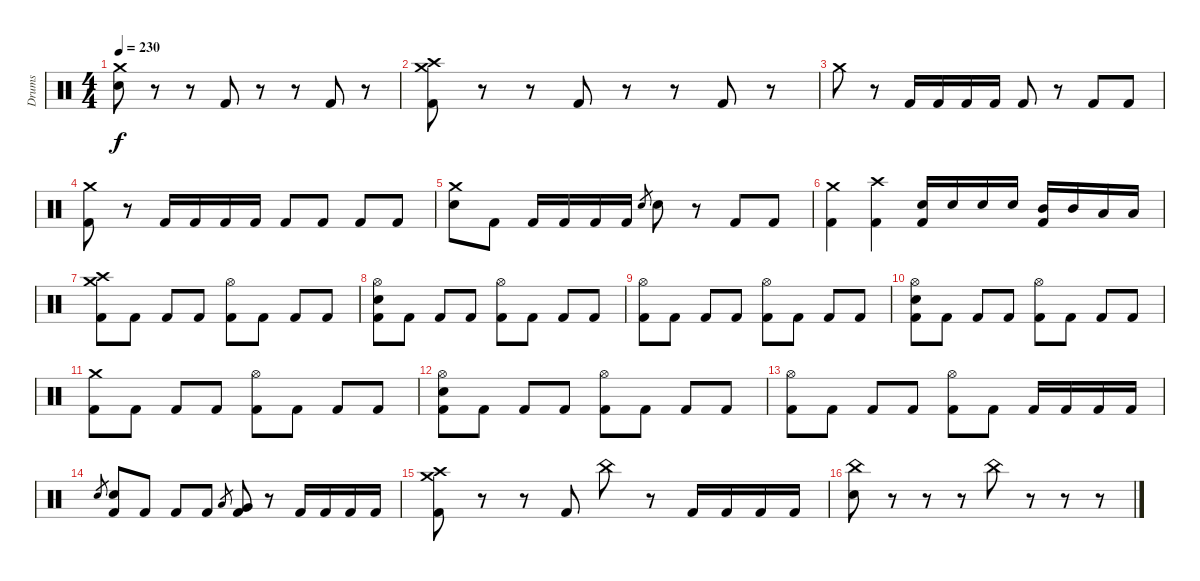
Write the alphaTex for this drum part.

\track ("Drums" "Drums") {instrument percussion}
\staff
\articulation defaults
\ts (4 4)
\tempo 230
\clef neutral
\ks c
("Crash medium (hit)" "Electric Snare (hit)").8{dy f} r.8 r.8 "Kick (hit) 2".8 r.8 r.8 "Kick (hit) 2".8 r.8 |
("Crash medium (hit)" "Crash high (hit)" "Kick (hit) 2").8 r.8 r.8 "Kick (hit) 2".8 r.8 r.8 "Kick (hit) 2".8 r.8 |
"Crash medium (hit)".8 r.8 "Kick (hit) 2".16 "Kick (hit) 2".16 "Kick (hit) 2".16 "Kick (hit) 2".16 "Kick (hit) 2".8 r.8 "Kick (hit) 2".8 "Kick (hit) 2".8 |
("Crash medium (hit)" "Kick (hit) 2").8 r.8 "Kick (hit) 2".16 "Kick (hit) 2".16 "Kick (hit) 2".16 "Kick (hit) 2".16 "Kick (hit) 2".8 "Kick (hit) 2".8 "Kick (hit) 2".8 "Kick (hit) 2".8 |
("Crash medium (hit)" "Electric Snare (hit)").8 "Kick (hit) 2".8 "Kick (hit) 2".16 "Kick (hit) 2".16 "Kick (hit) 2".16 "Kick (hit) 2".16 "Electric Snare (hit)".8{gr} "Electric Snare (hit)".8 r.8 "Kick (hit) 2".8 "Kick (hit) 2".8 |
("Crash medium (hit)" "Kick (hit) 2").4 ("Crash high (hit)" "Kick (hit) 2").4 ("Electric Snare (hit)" "Kick (hit) 2").16 "Electric Snare (hit)".16 "Electric Snare (hit)".16 "Electric Snare (hit)".16 ("Mid Tom (hit)" "Kick (hit) 2").16 "Mid Tom (hit)".16 "Low Tom (hit)".16 "Low Tom (hit)".16 |
("Crash medium (hit)" "Crash high (hit)" "Kick (hit) 2").8 "Kick (hit) 2".8 "Kick (hit) 2".8 "Kick (hit) 2".8 ("Hi-Hat (open)" "Kick (hit) 2").8 "Kick (hit) 2".8 "Kick (hit) 2".8 "Kick (hit) 2".8 |
("Hi-Hat (open)" "Electric Snare (hit)" "Kick (hit) 2").8 "Kick (hit) 2".8 "Kick (hit) 2".8 "Kick (hit) 2".8 ("Hi-Hat (open)" "Kick (hit) 2").8 "Kick (hit) 2".8 "Kick (hit) 2".8 "Kick (hit) 2".8 |
("Hi-Hat (open)" "Kick (hit) 2").8 "Kick (hit) 2".8 "Kick (hit) 2".8 "Kick (hit) 2".8 ("Hi-Hat (open)" "Kick (hit) 2").8 "Kick (hit) 2".8 "Kick (hit) 2".8 "Kick (hit) 2".8 |
("Hi-Hat (open)" "Electric Snare (hit)" "Kick (hit) 2").8 "Kick (hit) 2".8 "Kick (hit) 2".8 "Kick (hit) 2".8 ("Hi-Hat (open)" "Kick (hit) 2").8 "Kick (hit) 2".8 "Kick (hit) 2".8 "Kick (hit) 2".8 |
("Crash medium (hit)" "Kick (hit) 2").8 "Kick (hit) 2".8 "Kick (hit) 2".8 "Kick (hit) 2".8 ("Hi-Hat (open)" "Kick (hit) 2").8 "Kick (hit) 2".8 "Kick (hit) 2".8 "Kick (hit) 2".8 |
("Hi-Hat (open)" "Electric Snare (hit)" "Kick (hit) 2").8 "Kick (hit) 2".8 "Kick (hit) 2".8 "Kick (hit) 2".8 ("Hi-Hat (open)" "Kick (hit) 2").8 "Kick (hit) 2".8 "Kick (hit) 2".8 "Kick (hit) 2".8 |
("Hi-Hat (open)" "Kick (hit) 2").8 "Kick (hit) 2".8 "Kick (hit) 2".8 "Kick (hit) 2".8 ("Hi-Hat (open)" "Kick (hit) 2").8 "Kick (hit) 2".8 "Kick (hit) 2".16 "Kick (hit) 2".16 "Kick (hit) 2".16 "Kick (hit) 2".16 |
"Electric Snare (hit)".8{gr} ("Electric Snare (hit)" "Kick (hit) 2").8 "Kick (hit) 2".8 "Kick (hit) 2".8 "Kick (hit) 2".8 "Low Tom (hit)".8{gr} ("Very Low Tom (hit)" "Kick (hit) 2").8 r.8 "Kick (hit) 2".16 "Kick (hit) 2".16 "Kick (hit) 2".16 "Kick (hit) 2".16 |
("Crash medium (hit)" "Crash high (hit)" "Kick (hit) 2").8 r.8 r.8 "Kick (hit) 2".8 "China (hit)".8 r.8 "Kick (hit) 2".16 "Kick (hit) 2".16 "Kick (hit) 2".16 "Kick (hit) 2".16 |
("China (hit)" "Electric Snare (hit)").8 r.8 r.8 r.8 "China (hit)".8 r.8 r.8 r.8
